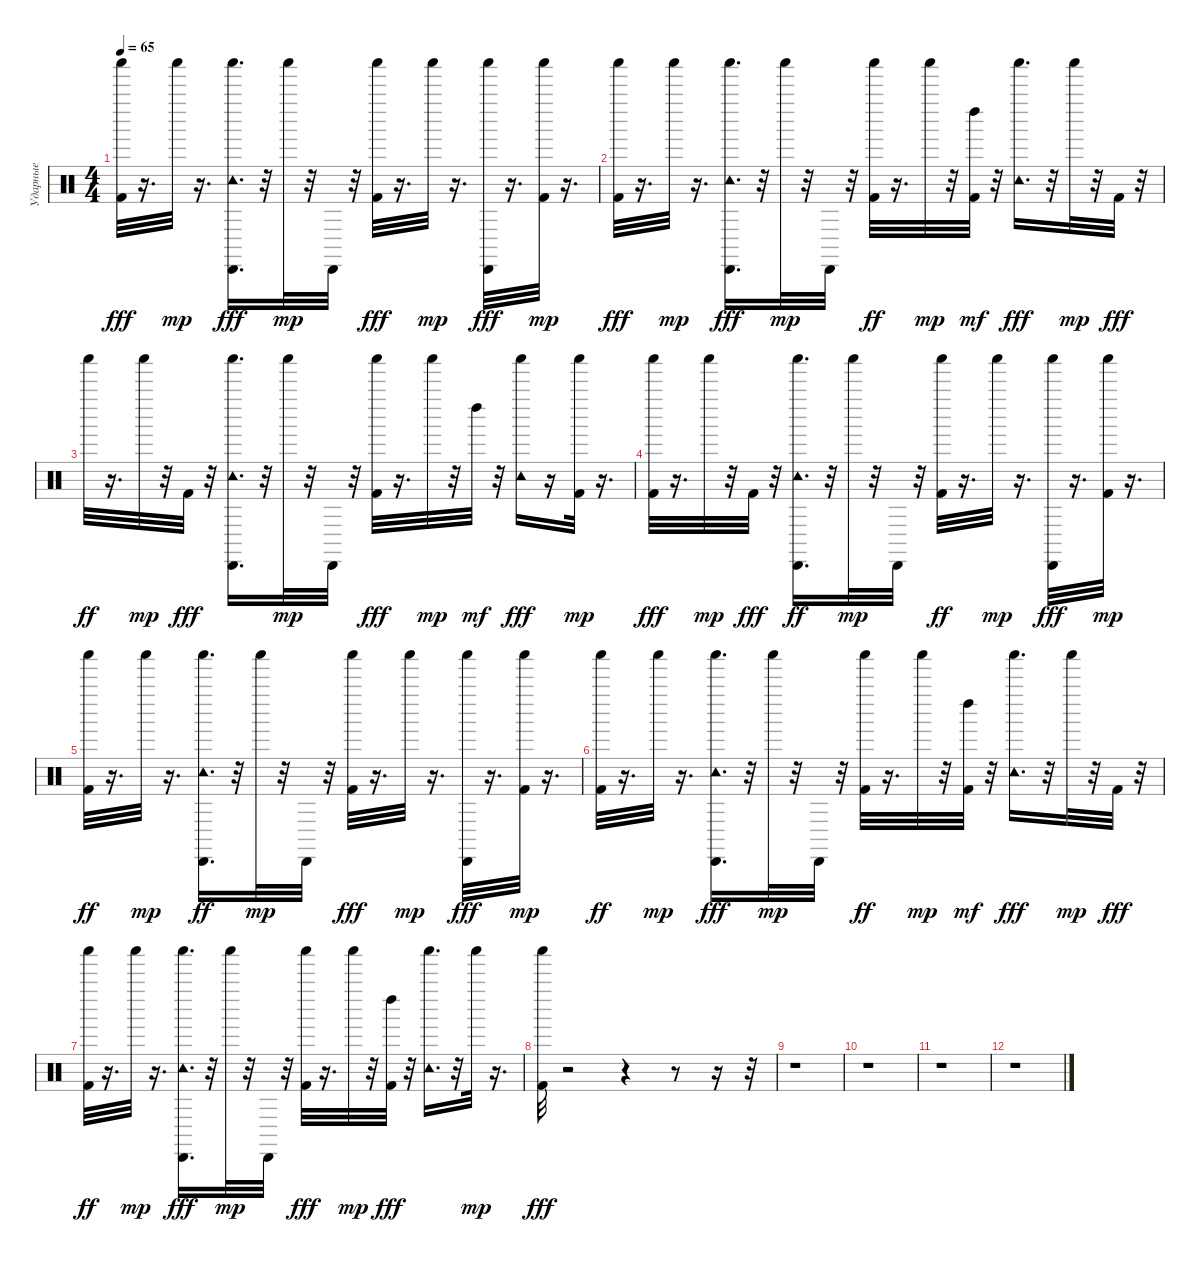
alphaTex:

\track ("Ударные" "Ударные") {instrument percussion}
\staff {score}
\articulation defaults
\ts (4 4)
\tempo 65
\clef neutral
\ks c
("Shaker (hit)" "Kick (hit) 2").32{dy fff} r.16{d} "Shaker (hit)".32{dy mp} r.16{d} ("Shaker (hit)" "Cabasa (hit)" "Tambourine (hit)").16{d dy fff} r.32 "Shaker (hit)".32{dy mp} r.32 "Cabasa (hit)".32 r.32 ("Shaker (hit)" "Kick (hit) 2").32{dy fff} r.16{d} "Shaker (hit)".32{dy mp} r.16{d} ("Cabasa (hit)" "Shaker (hit)").32{dy fff} r.16{d} ("Kick (hit) 2" "Shaker (hit)").32{dy mp} r.16{d} |
("Shaker (hit)" "Kick (hit) 2").32{dy fff} r.16{d} "Shaker (hit)".32{dy mp} r.16{d} ("Shaker (hit)" "Cabasa (hit)" "Tambourine (hit)").16{d dy fff} r.32 "Shaker (hit)".32{dy mp} r.32 "Cabasa (hit)".32 r.32 ("Kick (hit) 2" "Shaker (hit)").32{dy ff} r.16{d} "Shaker (hit)".32{dy mp} r.32 ("Kick (hit) 2" "Left Maraca (hit)").32{dy mf} r.32 ("Tambourine (hit)" "Shaker (hit)").16{d dy fff} r.32 "Shaker (hit)".32{dy mp} r.32 "Kick (hit) 2".32{dy fff} r.32 |
"Shaker (hit)".32{dy ff} r.16{d} "Shaker (hit)".32{dy mp} r.32 "Kick (hit) 2".32{dy fff} r.32 ("Shaker (hit)" "Cabasa (hit)" "Tambourine (hit)").16{d} r.32 "Shaker (hit)".32{dy mp} r.32 "Cabasa (hit)".32 r.32 ("Shaker (hit)" "Kick (hit) 2").32{dy fff} r.16{d} "Shaker (hit)".32{dy mp} r.32 "Left Maraca (hit)".32{dy mf} r.32 ("Tambourine (hit)" "Shaker (hit)").16{dy fff} r.16 ("Kick (hit) 2" "Shaker (hit)").32{dy mp} r.16{d} |
("Shaker (hit)" "Kick (hit) 2").32{dy fff} r.16{d} "Shaker (hit)".32{dy mp} r.32 "Kick (hit) 2".32{dy fff} r.32 ("Shaker (hit)" "Tambourine (hit)" "Cabasa (hit)").16{d dy ff} r.32 "Shaker (hit)".32{dy mp} r.32 "Cabasa (hit)".32 r.32 ("Kick (hit) 2" "Shaker (hit)").32{dy ff} r.16{d} "Shaker (hit)".32{dy mp} r.16{d} ("Cabasa (hit)" "Shaker (hit)").32{dy fff} r.16{d} ("Kick (hit) 2" "Shaker (hit)").32{dy mp} r.16{d} |
("Kick (hit) 2" "Shaker (hit)").32{dy ff} r.16{d} "Shaker (hit)".32{dy mp} r.16{d} ("Tambourine (hit)" "Shaker (hit)" "Cabasa (hit)").16{d dy ff} r.32 "Shaker (hit)".32{dy mp} r.32 "Cabasa (hit)".32 r.32 ("Shaker (hit)" "Kick (hit) 2").32{dy fff} r.16{d} "Shaker (hit)".32{dy mp} r.16{d} ("Cabasa (hit)" "Shaker (hit)").32{dy fff} r.16{d} ("Kick (hit) 2" "Shaker (hit)").32{dy mp} r.16{d} |
("Kick (hit) 2" "Shaker (hit)").32{dy ff} r.16{d} "Shaker (hit)".32{dy mp} r.16{d} ("Cabasa (hit)" "Shaker (hit)" "Tambourine (hit)").16{d dy fff} r.32 "Shaker (hit)".32{dy mp} r.32 "Cabasa (hit)".32 r.32 ("Kick (hit) 2" "Shaker (hit)").32{dy ff} r.16{d} "Shaker (hit)".32{dy mp} r.32 ("Kick (hit) 2" "Left Maraca (hit)").32{dy mf} r.32 ("Tambourine (hit)" "Shaker (hit)").16{d dy fff} r.32 "Shaker (hit)".32{dy mp} r.32 "Kick (hit) 2".32{dy fff} r.32 |
("Kick (hit) 2" "Shaker (hit)").32{dy ff} r.16{d} "Shaker (hit)".32{dy mp} r.16{d} ("Shaker (hit)" "Cabasa (hit)" "Tambourine (hit)").16{d dy fff} r.32 "Shaker (hit)".32{dy mp} r.32 "Cabasa (hit)".32 r.32 ("Shaker (hit)" "Kick (hit) 2").32{dy fff} r.16{d} "Shaker (hit)".32{dy mp} r.32 ("Left Maraca (hit)" "Kick (hit) 2").32{dy fff} r.32 ("Shaker (hit)" "Tambourine (hit)").16{d} r.32 "Shaker (hit)".32{dy mp} r.16{d} |
("Shaker (hit)" "Kick (hit) 2").32{dy fff} r.2 r.4 r.8 r.16 r.32 |
r.1 |
r.1 |
r.1 |
r.1
